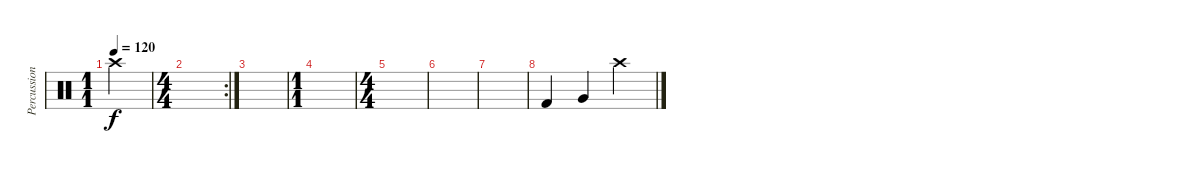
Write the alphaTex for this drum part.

\track ("Percussion" "Percussion") {instrument percussion}
\staff {score}
\articulation defaults
\ts (1 1)
\tempo 120
\clef neutral
\ks c "Crash high (hit)".4{dy f}
|
\rc 2
\ts (4 4)
|
|
\ts (1 1)
|
\ts (4 4)
|
|
|
"Kick (hit) 2".4 "Very Low Tom (hit)".4 "Crash high (hit)".4
